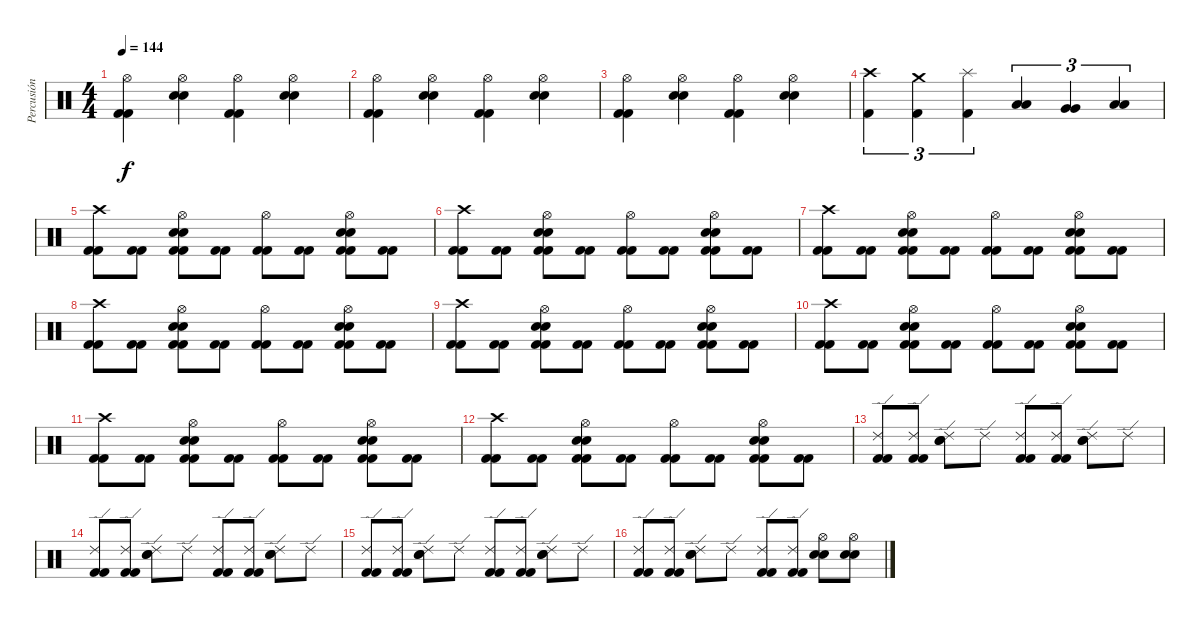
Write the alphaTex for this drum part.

\track ("Percusión" "Percusión") {instrument percussion}
\staff {score}
\articulation defaults
\ts (4 4)
\tempo 144
\clef neutral
\ks c
("Hi-Hat (open)" "Kick (hit) 2" "Kick (hit) 2").4{dy f} ("Hi-Hat (open)" "Snare (hit) 2" "Snare (hit) 2").4 ("Hi-Hat (open)" "Kick (hit) 2" "Kick (hit) 2").4 ("Hi-Hat (open)" "Snare (hit) 2" "Snare (hit) 2").4 |
("Hi-Hat (open)" "Kick (hit) 2" "Kick (hit) 2").4 ("Hi-Hat (open)" "Snare (hit) 2" "Snare (hit) 2").4 ("Hi-Hat (open)" "Kick (hit) 2" "Kick (hit) 2").4 ("Hi-Hat (open)" "Snare (hit) 2" "Snare (hit) 2").4 |
("Hi-Hat (open)" "Kick (hit) 2" "Kick (hit) 2").4 ("Hi-Hat (open)" "Snare (hit) 2" "Snare (hit) 2").4 ("Hi-Hat (open)" "Kick (hit) 2" "Kick (hit) 2").4 ("Hi-Hat (open)" "Snare (hit) 2" "Snare (hit) 2").4 |
("Crash high (hit)" "Kick (hit) 2").4{tu (3 2)} ("Crash medium (hit)" "Kick (hit) 2").4{tu (3 2)} ("Splash (hit)" "Kick (hit) 2").4{tu (3 2)} ("Low Tom (hit)" "Low Tom (hit)").4{tu (3 2)} ("Very Low Tom (hit)" "Very Low Tom (hit)").4{tu (3 2)} ("Low Floor Tom (hit)" "Low Floor Tom (hit)").4{tu (3 2)} |
("Crash high (hit)" "Kick (hit) 2" "Kick (hit) 2").8 ("Kick (hit) 2" "Kick (hit) 2").8 ("Hi-Hat (open)" "Snare (hit) 2" "Snare (hit) 2" "Kick (hit) 2" "Kick (hit) 2").8 ("Kick (hit) 2" "Kick (hit) 2").8 ("Hi-Hat (open)" "Kick (hit) 2" "Kick (hit) 2").8 ("Kick (hit) 2" "Kick (hit) 2").8 ("Hi-Hat (open)" "Snare (hit) 2" "Snare (hit) 2" "Kick (hit) 2" "Kick (hit) 2").8 ("Kick (hit) 2" "Kick (hit) 2").8 |
("Crash high (hit)" "Kick (hit) 2" "Kick (hit) 2").8 ("Kick (hit) 2" "Kick (hit) 2").8 ("Hi-Hat (open)" "Snare (hit) 2" "Snare (hit) 2" "Kick (hit) 2" "Kick (hit) 2").8 ("Kick (hit) 2" "Kick (hit) 2").8 ("Hi-Hat (open)" "Kick (hit) 2" "Kick (hit) 2").8 ("Kick (hit) 2" "Kick (hit) 2").8 ("Hi-Hat (open)" "Snare (hit) 2" "Snare (hit) 2" "Kick (hit) 2" "Kick (hit) 2").8 ("Kick (hit) 2" "Kick (hit) 2").8 |
("Crash high (hit)" "Kick (hit) 2" "Kick (hit) 2").8 ("Kick (hit) 2" "Kick (hit) 2").8 ("Hi-Hat (open)" "Snare (hit) 2" "Snare (hit) 2" "Kick (hit) 2" "Kick (hit) 2").8 ("Kick (hit) 2" "Kick (hit) 2").8 ("Hi-Hat (open)" "Kick (hit) 2" "Kick (hit) 2").8 ("Kick (hit) 2" "Kick (hit) 2").8 ("Hi-Hat (open)" "Snare (hit) 2" "Snare (hit) 2" "Kick (hit) 2" "Kick (hit) 2").8 ("Kick (hit) 2" "Kick (hit) 2").8 |
("Crash high (hit)" "Kick (hit) 2" "Kick (hit) 2").8 ("Kick (hit) 2" "Kick (hit) 2").8 ("Hi-Hat (open)" "Snare (hit) 2" "Snare (hit) 2" "Kick (hit) 2" "Kick (hit) 2").8 ("Kick (hit) 2" "Kick (hit) 2").8 ("Hi-Hat (open)" "Kick (hit) 2" "Kick (hit) 2").8 ("Kick (hit) 2" "Kick (hit) 2").8 ("Hi-Hat (open)" "Snare (hit) 2" "Snare (hit) 2" "Kick (hit) 2" "Kick (hit) 2").8 ("Kick (hit) 2" "Kick (hit) 2").8 |
("Crash high (hit)" "Kick (hit) 2" "Kick (hit) 2").8 ("Kick (hit) 2" "Kick (hit) 2").8 ("Hi-Hat (open)" "Snare (hit) 2" "Snare (hit) 2" "Kick (hit) 2" "Kick (hit) 2").8 ("Kick (hit) 2" "Kick (hit) 2").8 ("Hi-Hat (open)" "Kick (hit) 2" "Kick (hit) 2").8 ("Kick (hit) 2" "Kick (hit) 2").8 ("Hi-Hat (open)" "Snare (hit) 2" "Snare (hit) 2" "Kick (hit) 2" "Kick (hit) 2").8 ("Kick (hit) 2" "Kick (hit) 2").8 |
("Crash high (hit)" "Kick (hit) 2" "Kick (hit) 2").8 ("Kick (hit) 2" "Kick (hit) 2").8 ("Hi-Hat (open)" "Snare (hit) 2" "Snare (hit) 2" "Kick (hit) 2" "Kick (hit) 2").8 ("Kick (hit) 2" "Kick (hit) 2").8 ("Hi-Hat (open)" "Kick (hit) 2" "Kick (hit) 2").8 ("Kick (hit) 2" "Kick (hit) 2").8 ("Hi-Hat (open)" "Snare (hit) 2" "Snare (hit) 2" "Kick (hit) 2" "Kick (hit) 2").8 ("Kick (hit) 2" "Kick (hit) 2").8 |
("Crash high (hit)" "Kick (hit) 2" "Kick (hit) 2").8 ("Kick (hit) 2" "Kick (hit) 2").8 ("Hi-Hat (open)" "Snare (hit) 2" "Snare (hit) 2" "Kick (hit) 2" "Kick (hit) 2").8 ("Kick (hit) 2" "Kick (hit) 2").8 ("Hi-Hat (open)" "Kick (hit) 2" "Kick (hit) 2").8 ("Kick (hit) 2" "Kick (hit) 2").8 ("Hi-Hat (open)" "Snare (hit) 2" "Snare (hit) 2" "Kick (hit) 2" "Kick (hit) 2").8 ("Kick (hit) 2" "Kick (hit) 2").8 |
("Crash high (hit)" "Kick (hit) 2" "Kick (hit) 2").8 ("Kick (hit) 2" "Kick (hit) 2").8 ("Hi-Hat (open)" "Snare (hit) 2" "Snare (hit) 2" "Kick (hit) 2" "Kick (hit) 2").8 ("Kick (hit) 2" "Kick (hit) 2").8 ("Hi-Hat (open)" "Kick (hit) 2" "Kick (hit) 2").8 ("Kick (hit) 2" "Kick (hit) 2").8 ("Hi-Hat (open)" "Snare (hit) 2" "Snare (hit) 2" "Kick (hit) 2" "Kick (hit) 2").8 ("Kick (hit) 2" "Kick (hit) 2").8 |
("Ride (edge) 2" "Kick (hit) 2" "Kick (hit) 2").8 ("Ride (edge) 2" "Kick (hit) 2" "Kick (hit) 2").8 ("Ride (edge) 2" "Snare (hit) 2" "Snare (hit) 2").8 "Ride (edge) 2".8 ("Ride (edge) 2" "Kick (hit) 2" "Kick (hit) 2").8 ("Ride (edge) 2" "Kick (hit) 2" "Kick (hit) 2").8 ("Ride (edge) 2" "Snare (hit) 2" "Snare (hit) 2").8 "Ride (edge) 2".8 |
("Ride (edge) 2" "Kick (hit) 2" "Kick (hit) 2").8 ("Ride (edge) 2" "Kick (hit) 2" "Kick (hit) 2").8 ("Ride (edge) 2" "Snare (hit) 2" "Snare (hit) 2").8 "Ride (edge) 2".8 ("Ride (edge) 2" "Kick (hit) 2" "Kick (hit) 2").8 ("Ride (edge) 2" "Kick (hit) 2" "Kick (hit) 2").8 ("Ride (edge) 2" "Snare (hit) 2" "Snare (hit) 2").8 "Ride (edge) 2".8 |
("Ride (edge) 2" "Kick (hit) 2" "Kick (hit) 2").8 ("Ride (edge) 2" "Kick (hit) 2" "Kick (hit) 2").8 ("Ride (edge) 2" "Snare (hit) 2" "Snare (hit) 2").8 "Ride (edge) 2".8 ("Ride (edge) 2" "Kick (hit) 2" "Kick (hit) 2").8 ("Ride (edge) 2" "Kick (hit) 2" "Kick (hit) 2").8 ("Ride (edge) 2" "Snare (hit) 2" "Snare (hit) 2").8 "Ride (edge) 2".8 |
("Ride (edge) 2" "Kick (hit) 2" "Kick (hit) 2").8 ("Ride (edge) 2" "Kick (hit) 2" "Kick (hit) 2").8 ("Ride (edge) 2" "Snare (hit) 2" "Snare (hit) 2").8 "Ride (edge) 2".8 ("Ride (edge) 2" "Kick (hit) 2" "Kick (hit) 2").8 ("Ride (edge) 2" "Kick (hit) 2" "Kick (hit) 2").8 ("Hi-Hat (open)" "Snare (hit) 2" "Snare (hit) 2").8 ("Hi-Hat (open)" "Snare (hit) 2" "Snare (hit) 2").8
